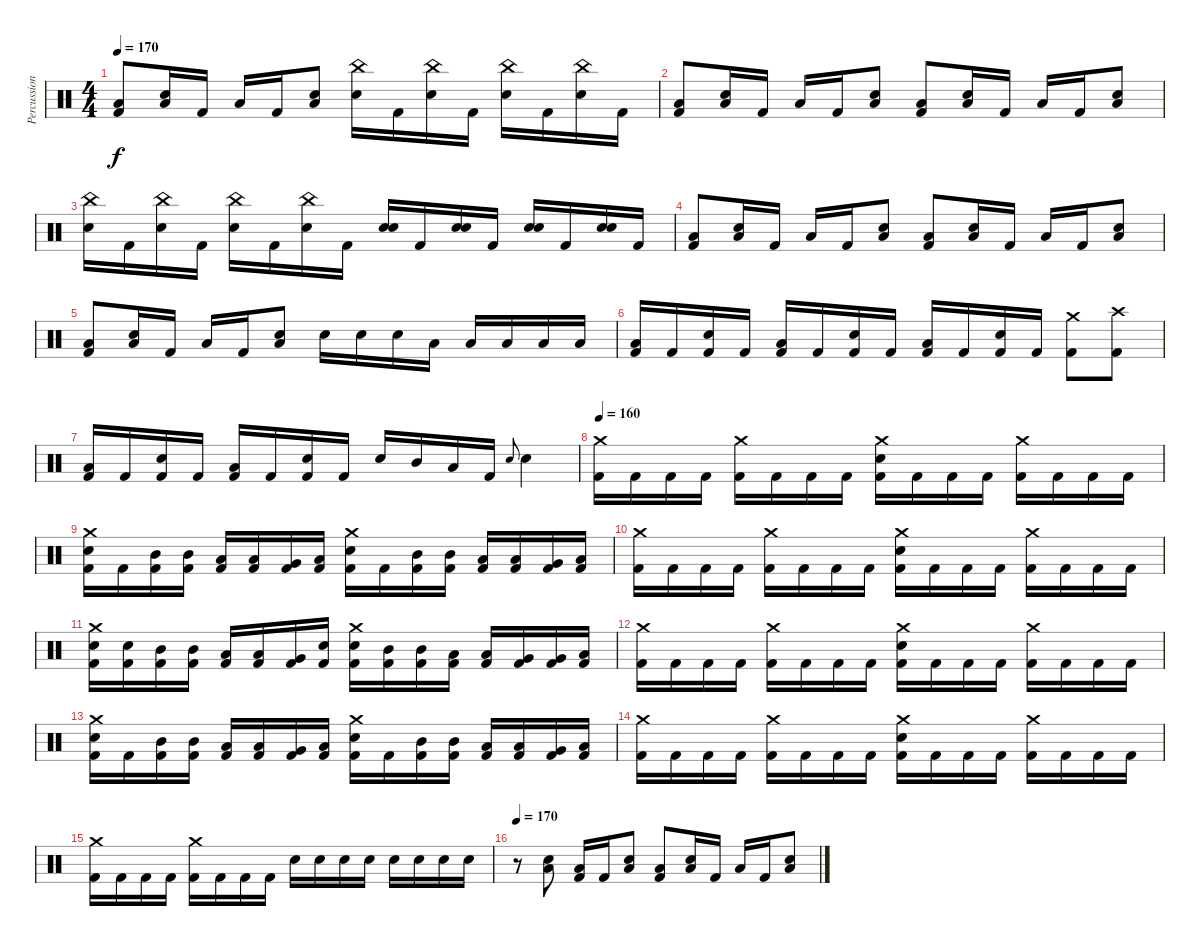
\track ("Percussion" "Percussion") {instrument percussion}
\staff {score}
\articulation defaults
\ts (4 4)
\tempo 170
\clef neutral
\ks c
("Low Floor Tom (hit)" "Kick (hit) 2").8{dy f} ("Low Floor Tom (hit)" "Snare (hit) 2").16 "Kick (hit) 2".16 "Low Floor Tom (hit)".16 "Kick (hit) 2".16 ("Low Floor Tom (hit)" "Snare (hit) 2").8 ("China (hit)" "Snare (hit) 2").16 "Kick (hit) 2".16 ("China (hit)" "Snare (hit) 2").16 "Kick (hit) 2".16 ("China (hit)" "Snare (hit) 2").16 "Kick (hit) 2".16 ("China (hit)" "Snare (hit) 2").16 "Kick (hit) 2".16 |
("Low Floor Tom (hit)" "Kick (hit) 2").8 ("Low Floor Tom (hit)" "Snare (hit) 2").16 "Kick (hit) 2".16 "Low Floor Tom (hit)".16 "Kick (hit) 2".16 ("Low Floor Tom (hit)" "Snare (hit) 2").8 ("Low Floor Tom (hit)" "Kick (hit) 2").8 ("Low Floor Tom (hit)" "Snare (hit) 2").16 "Kick (hit) 2".16 "Low Floor Tom (hit)".16 "Kick (hit) 2".16 ("Low Floor Tom (hit)" "Snare (hit) 2").8 |
("China (hit)" "Snare (hit) 2").16 "Kick (hit) 2".16 ("China (hit)" "Snare (hit) 2").16 "Kick (hit) 2".16 ("China (hit)" "Snare (hit) 2").16 "Kick (hit) 2".16 ("China (hit)" "Snare (hit) 2").16 "Kick (hit) 2".16 ("Snare (hit)" "Snare (hit) 2").16 "Kick (hit) 2".16 ("Snare (hit)" "Snare (hit) 2").16 "Kick (hit) 2".16 ("Snare (hit)" "Snare (hit) 2").16 "Kick (hit) 2".16 ("Snare (hit)" "Snare (hit) 2").16 "Kick (hit) 2".16 |
("Low Floor Tom (hit)" "Kick (hit) 2").8 ("Low Floor Tom (hit)" "Snare (hit) 2").16 "Kick (hit) 2".16 "Low Floor Tom (hit)".16 "Kick (hit) 2".16 ("Low Floor Tom (hit)" "Snare (hit) 2").8 ("Low Floor Tom (hit)" "Kick (hit) 2").8 ("Low Floor Tom (hit)" "Snare (hit) 2").16 "Kick (hit) 2".16 "Low Floor Tom (hit)".16 "Kick (hit) 2".16 ("Low Floor Tom (hit)" "Snare (hit) 2").8 |
("Low Floor Tom (hit)" "Kick (hit) 2").8 ("Low Floor Tom (hit)" "Snare (hit) 2").16 "Kick (hit) 2".16 "Low Floor Tom (hit)".16 "Kick (hit) 2".16 ("Low Floor Tom (hit)" "Snare (hit) 2").8 "Snare (hit) 2".16 "Snare (hit) 2".16 "Snare (hit) 2".16 "Low Floor Tom (hit)".16 "Low Floor Tom (hit)".16 "Low Floor Tom (hit)".16 "Low Floor Tom (hit)".16 "Low Floor Tom (hit)".16 |
("Low Floor Tom (hit)" "Kick (hit) 2").16 "Kick (hit) 2".16 ("Snare (hit) 2" "Kick (hit) 2").16 "Kick (hit) 2".16 ("Low Floor Tom (hit)" "Kick (hit) 2").16 "Kick (hit) 2".16 ("Snare (hit) 2" "Kick (hit) 2").16 "Kick (hit) 2".16 ("Low Floor Tom (hit)" "Kick (hit) 2").16 "Kick (hit) 2".16 ("Snare (hit) 2" "Kick (hit) 2").16 "Kick (hit) 2".16 ("Crash medium (hit)" "Kick (hit) 2").8 ("Crash high (hit)" "Kick (hit) 2").8 |
("Low Floor Tom (hit)" "Kick (hit) 2").16 "Kick (hit) 2".16 ("Snare (hit) 2" "Kick (hit) 2").16 "Kick (hit) 2".16 ("Low Floor Tom (hit)" "Kick (hit) 2").16 "Kick (hit) 2".16 ("Snare (hit) 2" "Kick (hit) 2").16 "Kick (hit) 2".16 "Snare (hit) 2".16 "Mid Tom (hit)".16 "Low Tom (hit)".16 "Kick (hit) 2".16 "Snare (hit) 2"{h}.8{gr onbeat} "Snare (hit) 2".4 |
\tempo 160
("Crash medium (hit)" "Kick (hit) 2").16 "Kick (hit) 2".16 "Kick (hit) 2".16 "Kick (hit) 2".16 ("Crash medium (hit)" "Kick (hit) 2").16 "Kick (hit) 2".16 "Kick (hit) 2".16 "Kick (hit) 2".16 ("Crash medium (hit)" "Snare (hit) 2" "Kick (hit) 2").16 "Kick (hit) 2".16 "Kick (hit) 2".16 "Kick (hit) 2".16 ("Crash medium (hit)" "Kick (hit) 2").16 "Kick (hit) 2".16 "Kick (hit) 2".16 "Kick (hit) 2".16 |
("Crash medium (hit)" "Snare (hit) 2" "Kick (hit) 2").16 "Kick (hit) 2".16 ("Mid Tom (hit)" "Kick (hit) 2").16 ("Mid Tom (hit)" "Kick (hit) 2").16 ("Low Tom (hit)" "Kick (hit) 2").16 ("Low Tom (hit)" "Kick (hit) 2").16 ("Very Low Tom (hit)" "Kick (hit) 2").16 ("Low Floor Tom (hit)" "Kick (hit) 2").16 ("Crash medium (hit)" "Snare (hit) 2" "Kick (hit) 2").16 "Kick (hit) 2".16 ("Mid Tom (hit)" "Kick (hit) 2").16 ("Mid Tom (hit)" "Kick (hit) 2").16 ("Low Tom (hit)" "Kick (hit) 2").16 ("Low Tom (hit)" "Kick (hit) 2").16 ("Very Low Tom (hit)" "Kick (hit) 2").16 ("Low Floor Tom (hit)" "Kick (hit) 2").16 |
("Crash medium (hit)" "Kick (hit) 2").16 "Kick (hit) 2".16 "Kick (hit) 2".16 "Kick (hit) 2".16 ("Crash medium (hit)" "Kick (hit) 2").16 "Kick (hit) 2".16 "Kick (hit) 2".16 "Kick (hit) 2".16 ("Crash medium (hit)" "Snare (hit) 2" "Kick (hit) 2").16 "Kick (hit) 2".16 "Kick (hit) 2".16 "Kick (hit) 2".16 ("Crash medium (hit)" "Kick (hit) 2").16 "Kick (hit) 2".16 "Kick (hit) 2".16 "Kick (hit) 2".16 |
("Crash medium (hit)" "Snare (hit) 2" "Kick (hit) 2").16 ("Snare (hit) 2" "Kick (hit) 2").16 ("Mid Tom (hit)" "Kick (hit) 2").16 ("Mid Tom (hit)" "Kick (hit) 2").16 ("Low Tom (hit)" "Kick (hit) 2").16 ("Low Tom (hit)" "Kick (hit) 2").16 ("Very Low Tom (hit)" "Kick (hit) 2").16 ("Snare (hit) 2" "Kick (hit) 2").16 ("Crash medium (hit)" "Snare (hit) 2" "Kick (hit) 2").16 ("Mid Tom (hit)" "Kick (hit) 2").16 ("Mid Tom (hit)" "Kick (hit) 2").16 ("Low Tom (hit)" "Kick (hit) 2").16 ("Low Tom (hit)" "Kick (hit) 2").16 ("Very Low Tom (hit)" "Kick (hit) 2").16 ("Very Low Tom (hit)" "Kick (hit) 2").16 ("Low Floor Tom (hit)" "Kick (hit) 2").16 |
("Crash medium (hit)" "Kick (hit) 2").16 "Kick (hit) 2".16 "Kick (hit) 2".16 "Kick (hit) 2".16 ("Crash medium (hit)" "Kick (hit) 2").16 "Kick (hit) 2".16 "Kick (hit) 2".16 "Kick (hit) 2".16 ("Crash medium (hit)" "Snare (hit) 2" "Kick (hit) 2").16 "Kick (hit) 2".16 "Kick (hit) 2".16 "Kick (hit) 2".16 ("Crash medium (hit)" "Kick (hit) 2").16 "Kick (hit) 2".16 "Kick (hit) 2".16 "Kick (hit) 2".16 |
("Crash medium (hit)" "Snare (hit) 2" "Kick (hit) 2").16 "Kick (hit) 2".16 ("Mid Tom (hit)" "Kick (hit) 2").16 ("Mid Tom (hit)" "Kick (hit) 2").16 ("Low Tom (hit)" "Kick (hit) 2").16 ("Low Tom (hit)" "Kick (hit) 2").16 ("Very Low Tom (hit)" "Kick (hit) 2").16 ("Low Floor Tom (hit)" "Kick (hit) 2").16 ("Crash medium (hit)" "Snare (hit) 2" "Kick (hit) 2").16 "Kick (hit) 2".16 ("Mid Tom (hit)" "Kick (hit) 2").16 ("Mid Tom (hit)" "Kick (hit) 2").16 ("Low Tom (hit)" "Kick (hit) 2").16 ("Low Tom (hit)" "Kick (hit) 2").16 ("Very Low Tom (hit)" "Kick (hit) 2").16 ("Low Floor Tom (hit)" "Kick (hit) 2").16 |
("Crash medium (hit)" "Kick (hit) 2").16 "Kick (hit) 2".16 "Kick (hit) 2".16 "Kick (hit) 2".16 ("Crash medium (hit)" "Kick (hit) 2").16 "Kick (hit) 2".16 "Kick (hit) 2".16 "Kick (hit) 2".16 ("Crash medium (hit)" "Snare (hit) 2" "Kick (hit) 2").16 "Kick (hit) 2".16 "Kick (hit) 2".16 "Kick (hit) 2".16 ("Crash medium (hit)" "Kick (hit) 2").16 "Kick (hit) 2".16 "Kick (hit) 2".16 "Kick (hit) 2".16 |
("Crash medium (hit)" "Kick (hit) 2").16 "Kick (hit) 2".16 "Kick (hit) 2".16 "Kick (hit) 2".16 ("Crash medium (hit)" "Kick (hit) 2").16 "Kick (hit) 2".16 "Kick (hit) 2".16 "Kick (hit) 2".16 "Snare (hit) 2".16 "Snare (hit) 2".16 "Snare (hit) 2".16 "Snare (hit) 2".16 "Snare (hit) 2".16 "Snare (hit) 2".16 "Snare (hit) 2".16 "Snare (hit) 2".16 |
\tempo 170
r.8 ("Low Floor Tom (hit)" "Snare (hit) 2").8 ("Low Floor Tom (hit)" "Kick (hit) 2").16 "Kick (hit) 2".16 ("Low Floor Tom (hit)" "Snare (hit) 2").8 ("Low Floor Tom (hit)" "Kick (hit) 2").8 ("Low Floor Tom (hit)" "Snare (hit) 2").16 "Kick (hit) 2".16 "Low Floor Tom (hit)".16 "Kick (hit) 2".16 ("Low Floor Tom (hit)" "Snare (hit) 2").8
